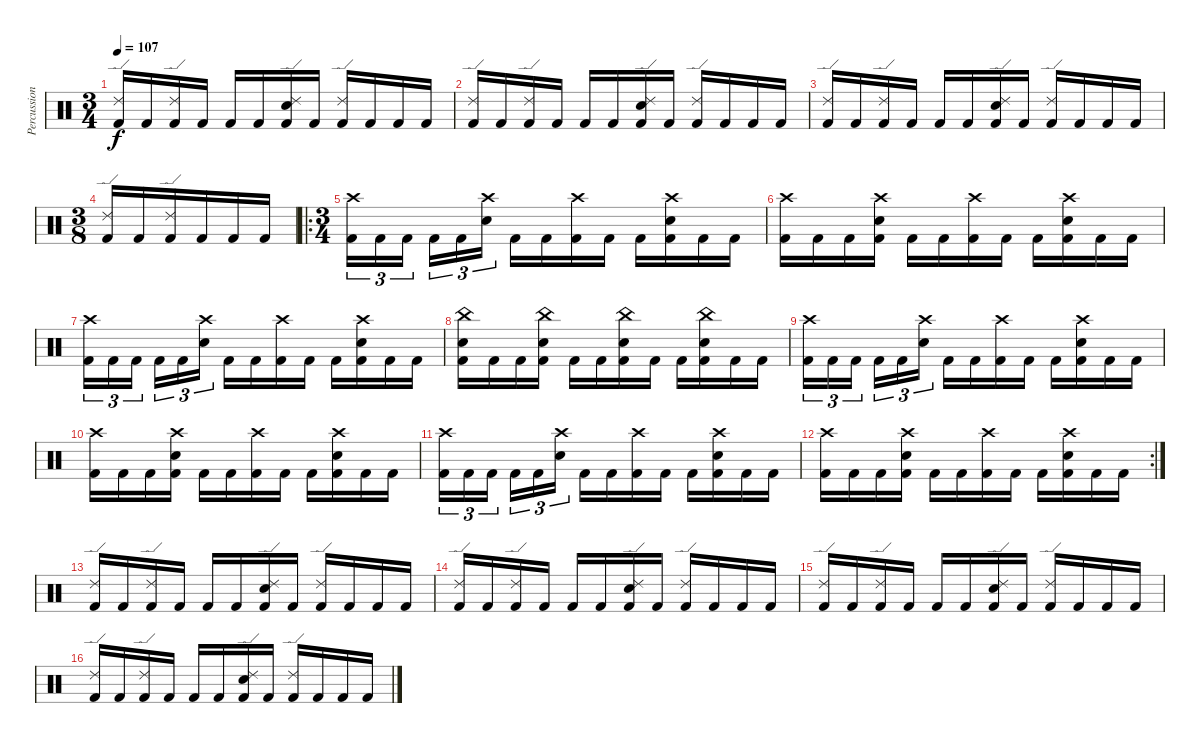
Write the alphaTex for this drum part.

\track ("Percussion" "Percussion") {instrument percussion}
\staff {score}
\articulation defaults
\ts (3 4)
\tempo 107
\clef neutral
\ks c
("Ride (edge) 2" "Kick (hit) 2").16{dy f} "Kick (hit) 2".16 ("Ride (edge) 2" "Kick (hit) 2").16 "Kick (hit) 2".16 "Kick (hit) 2".16 "Kick (hit) 2".16 ("Ride (edge) 2" "Electric Snare (hit)" "Kick (hit) 2").16 "Kick (hit) 2".16 ("Ride (edge) 2" "Kick (hit) 2").16 "Kick (hit) 2".16 "Kick (hit) 2".16 "Kick (hit) 2".16 |
("Ride (edge) 2" "Kick (hit) 2").16 "Kick (hit) 2".16 ("Ride (edge) 2" "Kick (hit) 2").16 "Kick (hit) 2".16 "Kick (hit) 2".16 "Kick (hit) 2".16 ("Ride (edge) 2" "Electric Snare (hit)" "Kick (hit) 2").16 "Kick (hit) 2".16 ("Ride (edge) 2" "Kick (hit) 2").16 "Kick (hit) 2".16 "Kick (hit) 2".16 "Kick (hit) 2".16 |
("Ride (edge) 2" "Kick (hit) 2").16 "Kick (hit) 2".16 ("Ride (edge) 2" "Kick (hit) 2").16 "Kick (hit) 2".16 "Kick (hit) 2".16 "Kick (hit) 2".16 ("Ride (edge) 2" "Electric Snare (hit)" "Kick (hit) 2").16 "Kick (hit) 2".16 ("Ride (edge) 2" "Kick (hit) 2").16 "Kick (hit) 2".16 "Kick (hit) 2".16 "Kick (hit) 2".16 |
\ts (3 8)
("Ride (edge) 2" "Kick (hit) 2").16 "Kick (hit) 2".16 ("Ride (edge) 2" "Kick (hit) 2").16 "Kick (hit) 2".16 "Kick (hit) 2".16 "Kick (hit) 2".16 |
\ro
\ts (3 4)
("Crash high (hit)" "Kick (hit) 2").16{tu (3 2)} "Kick (hit) 2".16{tu (3 2)} "Kick (hit) 2".16{tu (3 2) beam splitsecondary} "Kick (hit) 2".16{tu (3 2)} "Kick (hit) 2".16{tu (3 2)} ("Crash high (hit)" "Electric Snare (hit)").16{tu (3 2)} "Kick (hit) 2".16 "Kick (hit) 2".16 ("Crash high (hit)" "Kick (hit) 2").16 "Kick (hit) 2".16 "Kick (hit) 2".16 ("Crash high (hit)" "Electric Snare (hit)" "Kick (hit) 2").16 "Kick (hit) 2".16 "Kick (hit) 2".16 |
("Crash high (hit)" "Kick (hit) 2").16 "Kick (hit) 2".16 "Kick (hit) 2".16 ("Crash high (hit)" "Electric Snare (hit)" "Kick (hit) 2").16 "Kick (hit) 2".16 "Kick (hit) 2".16 ("Crash high (hit)" "Kick (hit) 2").16 "Kick (hit) 2".16 "Kick (hit) 2".16 ("Crash high (hit)" "Electric Snare (hit)" "Kick (hit) 2").16 "Kick (hit) 2".16 "Kick (hit) 2".16 |
("Crash high (hit)" "Kick (hit) 2").16{tu (3 2)} "Kick (hit) 2".16{tu (3 2)} "Kick (hit) 2".16{tu (3 2) beam splitsecondary} "Kick (hit) 2".16{tu (3 2)} "Kick (hit) 2".16{tu (3 2)} ("Crash high (hit)" "Electric Snare (hit)").16{tu (3 2)} "Kick (hit) 2".16 "Kick (hit) 2".16 ("Crash high (hit)" "Kick (hit) 2").16 "Kick (hit) 2".16 "Kick (hit) 2".16 ("Crash high (hit)" "Electric Snare (hit)" "Kick (hit) 2").16 "Kick (hit) 2".16 "Kick (hit) 2".16 |
("Electric Snare (hit)" "China (hit)" "Kick (hit) 2").16 "Kick (hit) 2".16 "Kick (hit) 2".16 ("Electric Snare (hit)" "China (hit)" "Kick (hit) 2").16 "Kick (hit) 2".16 "Kick (hit) 2".16 ("Electric Snare (hit)" "China (hit)" "Kick (hit) 2").16 "Kick (hit) 2".16 "Kick (hit) 2".16 ("Electric Snare (hit)" "China (hit)" "Kick (hit) 2").16 "Kick (hit) 2".16 "Kick (hit) 2".16 |
("Crash high (hit)" "Kick (hit) 2").16{tu (3 2)} "Kick (hit) 2".16{tu (3 2)} "Kick (hit) 2".16{tu (3 2) beam splitsecondary} "Kick (hit) 2".16{tu (3 2)} "Kick (hit) 2".16{tu (3 2)} ("Crash high (hit)" "Electric Snare (hit)").16{tu (3 2)} "Kick (hit) 2".16 "Kick (hit) 2".16 ("Crash high (hit)" "Kick (hit) 2").16 "Kick (hit) 2".16 "Kick (hit) 2".16 ("Crash high (hit)" "Electric Snare (hit)" "Kick (hit) 2").16 "Kick (hit) 2".16 "Kick (hit) 2".16 |
("Crash high (hit)" "Kick (hit) 2").16 "Kick (hit) 2".16 "Kick (hit) 2".16 ("Crash high (hit)" "Electric Snare (hit)" "Kick (hit) 2").16 "Kick (hit) 2".16 "Kick (hit) 2".16 ("Crash high (hit)" "Kick (hit) 2").16 "Kick (hit) 2".16 "Kick (hit) 2".16 ("Crash high (hit)" "Electric Snare (hit)" "Kick (hit) 2").16 "Kick (hit) 2".16 "Kick (hit) 2".16 |
("Crash high (hit)" "Kick (hit) 2").16{tu (3 2)} "Kick (hit) 2".16{tu (3 2)} "Kick (hit) 2".16{tu (3 2) beam splitsecondary} "Kick (hit) 2".16{tu (3 2)} "Kick (hit) 2".16{tu (3 2)} ("Crash high (hit)" "Electric Snare (hit)").16{tu (3 2)} "Kick (hit) 2".16 "Kick (hit) 2".16 ("Crash high (hit)" "Kick (hit) 2").16 "Kick (hit) 2".16 "Kick (hit) 2".16 ("Crash high (hit)" "Electric Snare (hit)" "Kick (hit) 2").16 "Kick (hit) 2".16 "Kick (hit) 2".16 |
\rc 2
("Crash high (hit)" "Kick (hit) 2").16 "Kick (hit) 2".16 "Kick (hit) 2".16 ("Crash high (hit)" "Electric Snare (hit)" "Kick (hit) 2").16 "Kick (hit) 2".16 "Kick (hit) 2".16 ("Crash high (hit)" "Kick (hit) 2").16 "Kick (hit) 2".16 "Kick (hit) 2".16 ("Crash high (hit)" "Electric Snare (hit)" "Kick (hit) 2").16 "Kick (hit) 2".16 "Kick (hit) 2".16 |
("Ride (edge) 2" "Kick (hit) 2").16 "Kick (hit) 2".16 ("Ride (edge) 2" "Kick (hit) 2").16 "Kick (hit) 2".16 "Kick (hit) 2".16 "Kick (hit) 2".16 ("Ride (edge) 2" "Electric Snare (hit)" "Kick (hit) 2").16 "Kick (hit) 2".16 ("Ride (edge) 2" "Kick (hit) 2").16 "Kick (hit) 2".16 "Kick (hit) 2".16 "Kick (hit) 2".16 |
("Ride (edge) 2" "Kick (hit) 2").16 "Kick (hit) 2".16 ("Ride (edge) 2" "Kick (hit) 2").16 "Kick (hit) 2".16 "Kick (hit) 2".16 "Kick (hit) 2".16 ("Ride (edge) 2" "Electric Snare (hit)" "Kick (hit) 2").16 "Kick (hit) 2".16 ("Ride (edge) 2" "Kick (hit) 2").16 "Kick (hit) 2".16 "Kick (hit) 2".16 "Kick (hit) 2".16 |
("Ride (edge) 2" "Kick (hit) 2").16 "Kick (hit) 2".16 ("Ride (edge) 2" "Kick (hit) 2").16 "Kick (hit) 2".16 "Kick (hit) 2".16 "Kick (hit) 2".16 ("Ride (edge) 2" "Electric Snare (hit)" "Kick (hit) 2").16 "Kick (hit) 2".16 ("Ride (edge) 2" "Kick (hit) 2").16 "Kick (hit) 2".16 "Kick (hit) 2".16 "Kick (hit) 2".16 |
("Ride (edge) 2" "Kick (hit) 2").16 "Kick (hit) 2".16 ("Ride (edge) 2" "Kick (hit) 2").16 "Kick (hit) 2".16 "Kick (hit) 2".16 "Kick (hit) 2".16 ("Ride (edge) 2" "Electric Snare (hit)" "Kick (hit) 2").16 "Kick (hit) 2".16 ("Ride (edge) 2" "Kick (hit) 2").16 "Kick (hit) 2".16 "Kick (hit) 2".16 "Kick (hit) 2".16
